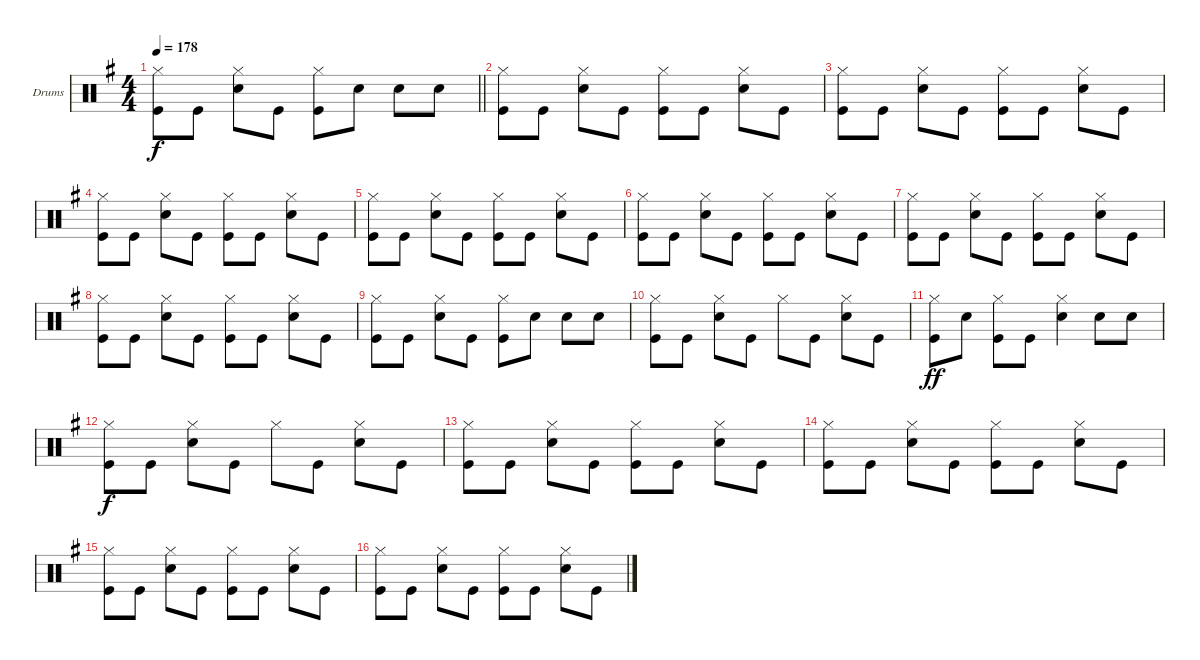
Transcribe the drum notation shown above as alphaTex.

\bracketExtendMode groupsimilarinstruments
\firstSystemTrackNameOrientation horizontal
\otherSystemsTrackNameOrientation horizontal
\track ("Drumkit" "Drums") {instrument percussion}
\staff {score}
\articulation defaults
\ts (4 4)
\tempo 178
\clef neutral
\barLineRight lightlight
\ks eminor
("Hi-Hat (closed)" "Kick (hit)").8{dy f} "Kick (hit)".8 ("Hi-Hat (closed)" "Snare (hit) 2").8 "Kick (hit)".8 ("Hi-Hat (closed)" "Kick (hit)").8 "Snare (hit) 2".8 "Snare (hit) 2".8 "Snare (hit) 2".8 |
("Hi-Hat (closed)" "Kick (hit)").8 "Kick (hit)".8 ("Hi-Hat (closed)" "Snare (hit) 2").8 "Kick (hit)".8 ("Hi-Hat (closed)" "Kick (hit)").8 "Kick (hit)".8 ("Hi-Hat (closed)" "Snare (hit) 2").8 "Kick (hit)".8 |
("Hi-Hat (closed)" "Kick (hit)").8 "Kick (hit)".8 ("Hi-Hat (closed)" "Snare (hit) 2").8 "Kick (hit)".8 ("Hi-Hat (closed)" "Kick (hit)").8 "Kick (hit)".8 ("Hi-Hat (closed)" "Snare (hit) 2").8 "Kick (hit)".8 |
("Hi-Hat (closed)" "Kick (hit)").8 "Kick (hit)".8 ("Hi-Hat (closed)" "Snare (hit) 2").8 "Kick (hit)".8 ("Hi-Hat (closed)" "Kick (hit)").8 "Kick (hit)".8 ("Hi-Hat (closed)" "Snare (hit) 2").8 "Kick (hit)".8 |
("Hi-Hat (closed)" "Kick (hit)").8 "Kick (hit)".8 ("Hi-Hat (closed)" "Snare (hit) 2").8 "Kick (hit)".8 ("Hi-Hat (closed)" "Kick (hit)").8 "Kick (hit)".8 ("Hi-Hat (closed)" "Snare (hit) 2").8 "Kick (hit)".8 |
("Hi-Hat (closed)" "Kick (hit)").8 "Kick (hit)".8 ("Hi-Hat (closed)" "Snare (hit) 2").8 "Kick (hit)".8 ("Hi-Hat (closed)" "Kick (hit)").8 "Kick (hit)".8 ("Hi-Hat (closed)" "Snare (hit) 2").8 "Kick (hit)".8 |
("Hi-Hat (closed)" "Kick (hit)").8 "Kick (hit)".8 ("Hi-Hat (closed)" "Snare (hit) 2").8 "Kick (hit)".8 ("Hi-Hat (closed)" "Kick (hit)").8 "Kick (hit)".8 ("Hi-Hat (closed)" "Snare (hit) 2").8 "Kick (hit)".8 |
("Hi-Hat (closed)" "Kick (hit)").8 "Kick (hit)".8 ("Hi-Hat (closed)" "Snare (hit) 2").8 "Kick (hit)".8 ("Hi-Hat (closed)" "Kick (hit)").8 "Kick (hit)".8 ("Hi-Hat (closed)" "Snare (hit) 2").8 "Kick (hit)".8 |
("Hi-Hat (closed)" "Kick (hit)").8 "Kick (hit)".8 ("Hi-Hat (closed)" "Snare (hit) 2").8 "Kick (hit)".8 ("Hi-Hat (closed)" "Kick (hit)").8 "Snare (hit) 2".8 "Snare (hit) 2".8 "Snare (hit) 2".8 |
("Hi-Hat (closed)" "Kick (hit)").8 "Kick (hit)".8 ("Hi-Hat (closed)" "Snare (hit) 2").8 "Kick (hit)".8 "Hi-Hat (closed)".8 "Kick (hit)".8 ("Hi-Hat (closed)" "Snare (hit) 2").8 "Kick (hit)".8 |
("Hi-Hat (closed)" "Kick (hit)").8{dy ff} "Snare (hit) 2".8 ("Hi-Hat (closed)" "Kick (hit)").8 "Kick (hit)".8 ("Hi-Hat (closed)" "Snare (hit) 2").4 "Snare (hit) 2".8 "Snare (hit) 2".8 |
("Hi-Hat (closed)" "Kick (hit)").8{dy f} "Kick (hit)".8 ("Hi-Hat (closed)" "Snare (hit) 2").8 "Kick (hit)".8 "Hi-Hat (closed)".8 "Kick (hit)".8 ("Hi-Hat (closed)" "Snare (hit) 2").8 "Kick (hit)".8 |
("Hi-Hat (closed)" "Kick (hit)").8 "Kick (hit)".8 ("Hi-Hat (closed)" "Snare (hit) 2").8 "Kick (hit)".8 ("Hi-Hat (closed)" "Kick (hit)").8 "Kick (hit)".8 ("Hi-Hat (closed)" "Snare (hit) 2").8 "Kick (hit)".8 |
("Hi-Hat (closed)" "Kick (hit)").8 "Kick (hit)".8 ("Hi-Hat (closed)" "Snare (hit) 2").8 "Kick (hit)".8 ("Hi-Hat (closed)" "Kick (hit)").8 "Kick (hit)".8 ("Hi-Hat (closed)" "Snare (hit) 2").8 "Kick (hit)".8 |
("Hi-Hat (closed)" "Kick (hit)").8 "Kick (hit)".8 ("Hi-Hat (closed)" "Snare (hit) 2").8 "Kick (hit)".8 ("Hi-Hat (closed)" "Kick (hit)").8 "Kick (hit)".8 ("Hi-Hat (closed)" "Snare (hit) 2").8 "Kick (hit)".8 |
("Hi-Hat (closed)" "Kick (hit)").8 "Kick (hit)".8 ("Hi-Hat (closed)" "Snare (hit) 2").8 "Kick (hit)".8 ("Hi-Hat (closed)" "Kick (hit)").8 "Kick (hit)".8 ("Hi-Hat (closed)" "Snare (hit) 2").8 "Kick (hit)".8
